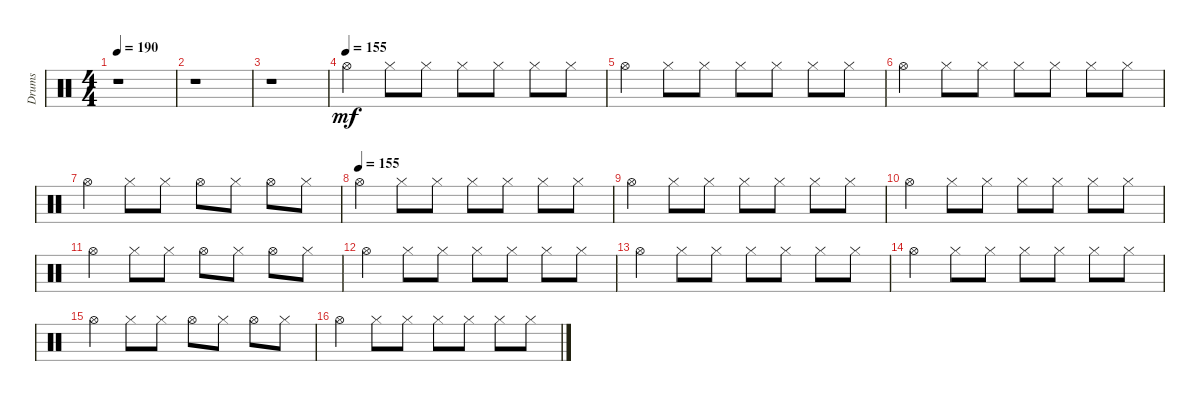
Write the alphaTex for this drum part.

\track ("Drums" "Drums") {instrument percussion}
\staff {score}
\articulation defaults
\ts (4 4)
\tempo 190
\clef neutral
\ks c
r.1{dy fff} |
r.1 |
r.1 |
\tempo (155)
"Hi-Hat (open)".4{dy mf} "Hi-Hat (closed)".8 "Hi-Hat (closed)".8 "Hi-Hat (closed)".8 "Hi-Hat (closed)".8 "Hi-Hat (closed)".8 "Hi-Hat (closed)".8 |
"Hi-Hat (open)".4 "Hi-Hat (closed)".8 "Hi-Hat (closed)".8 "Hi-Hat (closed)".8 "Hi-Hat (closed)".8 "Hi-Hat (closed)".8 "Hi-Hat (closed)".8 |
"Hi-Hat (open)".4 "Hi-Hat (closed)".8 "Hi-Hat (closed)".8 "Hi-Hat (closed)".8 "Hi-Hat (closed)".8 "Hi-Hat (closed)".8 "Hi-Hat (closed)".8 |
"Hi-Hat (open)".4 "Hi-Hat (closed)".8 "Hi-Hat (closed)".8 "Hi-Hat (open)".8 "Hi-Hat (closed)".8 "Hi-Hat (open)".8 "Hi-Hat (closed)".8 |
\tempo (155)
"Hi-Hat (open)".4 "Hi-Hat (closed)".8 "Hi-Hat (closed)".8 "Hi-Hat (closed)".8 "Hi-Hat (closed)".8 "Hi-Hat (closed)".8 "Hi-Hat (closed)".8 |
"Hi-Hat (open)".4 "Hi-Hat (closed)".8 "Hi-Hat (closed)".8 "Hi-Hat (closed)".8 "Hi-Hat (closed)".8 "Hi-Hat (closed)".8 "Hi-Hat (closed)".8 |
"Hi-Hat (open)".4 "Hi-Hat (closed)".8 "Hi-Hat (closed)".8 "Hi-Hat (closed)".8 "Hi-Hat (closed)".8 "Hi-Hat (closed)".8 "Hi-Hat (closed)".8 |
"Hi-Hat (open)".4 "Hi-Hat (closed)".8 "Hi-Hat (closed)".8 "Hi-Hat (open)".8 "Hi-Hat (closed)".8 "Hi-Hat (open)".8 "Hi-Hat (closed)".8 |
"Hi-Hat (open)".4 "Hi-Hat (closed)".8 "Hi-Hat (closed)".8 "Hi-Hat (closed)".8 "Hi-Hat (closed)".8 "Hi-Hat (closed)".8 "Hi-Hat (closed)".8 |
"Hi-Hat (open)".4 "Hi-Hat (closed)".8 "Hi-Hat (closed)".8 "Hi-Hat (closed)".8 "Hi-Hat (closed)".8 "Hi-Hat (closed)".8 "Hi-Hat (closed)".8 |
"Hi-Hat (open)".4 "Hi-Hat (closed)".8 "Hi-Hat (closed)".8 "Hi-Hat (closed)".8 "Hi-Hat (closed)".8 "Hi-Hat (closed)".8 "Hi-Hat (closed)".8 |
"Hi-Hat (open)".4 "Hi-Hat (closed)".8 "Hi-Hat (closed)".8 "Hi-Hat (open)".8 "Hi-Hat (closed)".8 "Hi-Hat (open)".8 "Hi-Hat (closed)".8 |
"Hi-Hat (open)".4 "Hi-Hat (closed)".8 "Hi-Hat (closed)".8 "Hi-Hat (closed)".8 "Hi-Hat (closed)".8 "Hi-Hat (closed)".8 "Hi-Hat (closed)".8
